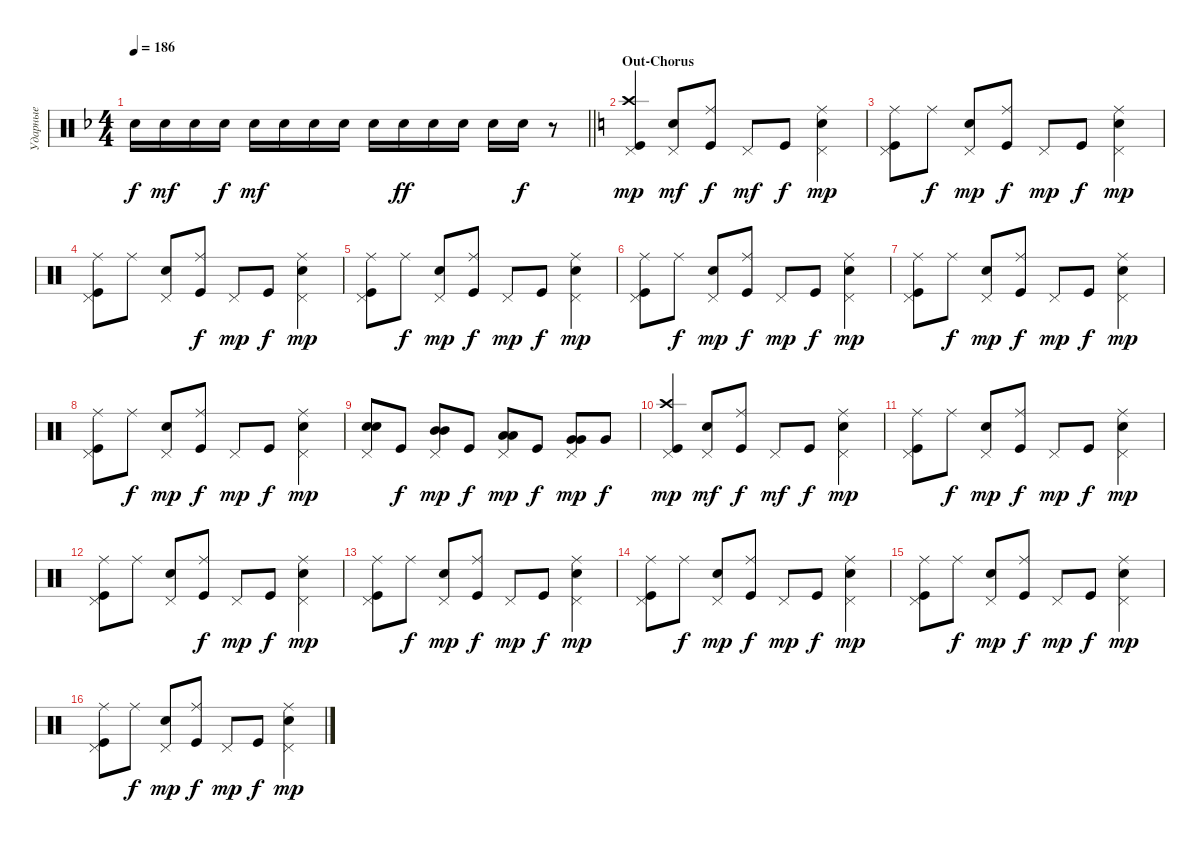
\track ("Ударные" "Ударные") {instrument percussion}
\staff {score}
\articulation defaults
\ts (4 4)
\tempo 186
\clef neutral
\barLineRight lightlight
\ks dminor "Snare (hit) 2".16{dy f} "Snare (hit) 2".16{dy mf} "Snare (hit) 2".16 "Snare (hit) 2".16{dy f} "Snare (hit) 2".16{dy mf} "Snare (hit) 2".16 "Snare (hit) 2".16 "Snare (hit) 2".16 "Snare (hit) 2".16 "Snare (hit) 2".16{dy ff} "Snare (hit) 2".16 "Snare (hit) 2".16 "Snare (hit) 2".16 "Snare (hit) 2".16{dy f}
r.8 |
\section ("" "Out-Chorus")
\ks aminor
("Kick (hit)" "Crash high (hit)" "Pedal Hi-Hat (hit)").4{dy mp} ("Snare (hit) 2" "Pedal Hi-Hat (hit)").8{dy mf} ("Kick (hit)" "Ride (middle)").8{dy f} "Pedal Hi-Hat (hit)".8{dy mf} "Kick (hit)".8{dy f} ("Snare (hit) 2" "Ride (middle)" "Pedal Hi-Hat (hit)").4{dy mp} |
("Pedal Hi-Hat (hit)" "Ride (middle)" "Kick (hit)").8 "Ride (middle)".8{dy f} ("Snare (hit) 2" "Pedal Hi-Hat (hit)").8{dy mp} ("Kick (hit)" "Ride (middle)").8{dy f} "Pedal Hi-Hat (hit)".8{dy mp} "Kick (hit)".8{dy f} ("Snare (hit) 2" "Ride (middle)" "Pedal Hi-Hat (hit)").4{dy mp} |
("Pedal Hi-Hat (hit)" "Ride (middle)" "Kick (hit)").8 "Ride (middle)".8 ("Snare (hit) 2" "Pedal Hi-Hat (hit)").8 ("Kick (hit)" "Ride (middle)").8{dy f} "Pedal Hi-Hat (hit)".8{dy mp} "Kick (hit)".8{dy f} ("Snare (hit) 2" "Ride (middle)" "Pedal Hi-Hat (hit)").4{dy mp} |
("Pedal Hi-Hat (hit)" "Ride (middle)" "Kick (hit)").8 "Ride (middle)".8{dy f} ("Snare (hit) 2" "Pedal Hi-Hat (hit)").8{dy mp} ("Kick (hit)" "Ride (middle)").8{dy f} "Pedal Hi-Hat (hit)".8{dy mp} "Kick (hit)".8{dy f} ("Snare (hit) 2" "Ride (middle)" "Pedal Hi-Hat (hit)").4{dy mp} |
("Pedal Hi-Hat (hit)" "Ride (middle)" "Kick (hit)").8 "Ride (middle)".8{dy f} ("Snare (hit) 2" "Pedal Hi-Hat (hit)").8{dy mp} ("Kick (hit)" "Ride (middle)").8{dy f} "Pedal Hi-Hat (hit)".8{dy mp} "Kick (hit)".8{dy f} ("Snare (hit) 2" "Ride (middle)" "Pedal Hi-Hat (hit)").4{dy mp} |
("Pedal Hi-Hat (hit)" "Ride (middle)" "Kick (hit)").8 "Ride (middle)".8{dy f} ("Snare (hit) 2" "Pedal Hi-Hat (hit)").8{dy mp} ("Kick (hit)" "Ride (middle)").8{dy f} "Pedal Hi-Hat (hit)".8{dy mp} "Kick (hit)".8{dy f} ("Snare (hit) 2" "Ride (middle)" "Pedal Hi-Hat (hit)").4{dy mp} |
("Pedal Hi-Hat (hit)" "Ride (middle)" "Kick (hit)").8 "Ride (middle)".8{dy f} ("Snare (hit) 2" "Pedal Hi-Hat (hit)").8{dy mp} ("Kick (hit)" "Ride (middle)").8{dy f} "Pedal Hi-Hat (hit)".8{dy mp} "Kick (hit)".8{dy f} ("Snare (hit) 2" "Ride (middle)" "Pedal Hi-Hat (hit)").4{dy mp} |
("Snare (hit) 2" "Snare (hit) 2" "Pedal Hi-Hat (hit)").8{bd 240} "Kick (hit)".8{dy f} ("Pedal Hi-Hat (hit)" "Mid Tom (hit)" "Mid Tom (hit)").8{bd 480 dy mp} "Kick (hit)".8{dy f} ("Low Tom (hit)" "Low Tom (hit)" "Pedal Hi-Hat (hit)").8{bd 480 dy mp} "Kick (hit)".8{dy f} ("Very Low Tom (hit)" "Pedal Hi-Hat (hit)" "Very Low Tom (hit)").8{dy mp} "Very Low Tom (hit)".8{dy f} |
("Kick (hit)" "Crash high (hit)" "Pedal Hi-Hat (hit)").4{dy mp} ("Snare (hit) 2" "Pedal Hi-Hat (hit)").8{dy mf} ("Kick (hit)" "Ride (middle)").8{dy f} "Pedal Hi-Hat (hit)".8{dy mf} "Kick (hit)".8{dy f} ("Snare (hit) 2" "Ride (middle)" "Pedal Hi-Hat (hit)").4{dy mp} |
("Pedal Hi-Hat (hit)" "Ride (middle)" "Kick (hit)").8 "Ride (middle)".8{dy f} ("Snare (hit) 2" "Pedal Hi-Hat (hit)").8{dy mp} ("Kick (hit)" "Ride (middle)").8{dy f} "Pedal Hi-Hat (hit)".8{dy mp} "Kick (hit)".8{dy f} ("Snare (hit) 2" "Ride (middle)" "Pedal Hi-Hat (hit)").4{dy mp} |
("Pedal Hi-Hat (hit)" "Ride (middle)" "Kick (hit)").8 "Ride (middle)".8 ("Snare (hit) 2" "Pedal Hi-Hat (hit)").8 ("Kick (hit)" "Ride (middle)").8{dy f} "Pedal Hi-Hat (hit)".8{dy mp} "Kick (hit)".8{dy f} ("Snare (hit) 2" "Ride (middle)" "Pedal Hi-Hat (hit)").4{dy mp} |
("Pedal Hi-Hat (hit)" "Ride (middle)" "Kick (hit)").8 "Ride (middle)".8{dy f} ("Snare (hit) 2" "Pedal Hi-Hat (hit)").8{dy mp} ("Kick (hit)" "Ride (middle)").8{dy f} "Pedal Hi-Hat (hit)".8{dy mp} "Kick (hit)".8{dy f} ("Snare (hit) 2" "Ride (middle)" "Pedal Hi-Hat (hit)").4{dy mp} |
("Pedal Hi-Hat (hit)" "Ride (middle)" "Kick (hit)").8 "Ride (middle)".8{dy f} ("Snare (hit) 2" "Pedal Hi-Hat (hit)").8{dy mp} ("Kick (hit)" "Ride (middle)").8{dy f} "Pedal Hi-Hat (hit)".8{dy mp} "Kick (hit)".8{dy f} ("Snare (hit) 2" "Ride (middle)" "Pedal Hi-Hat (hit)").4{dy mp} |
("Pedal Hi-Hat (hit)" "Ride (middle)" "Kick (hit)").8 "Ride (middle)".8{dy f} ("Snare (hit) 2" "Pedal Hi-Hat (hit)").8{dy mp} ("Kick (hit)" "Ride (middle)").8{dy f} "Pedal Hi-Hat (hit)".8{dy mp} "Kick (hit)".8{dy f} ("Snare (hit) 2" "Ride (middle)" "Pedal Hi-Hat (hit)").4{dy mp} |
("Pedal Hi-Hat (hit)" "Ride (middle)" "Kick (hit)").8 "Ride (middle)".8{dy f} ("Snare (hit) 2" "Pedal Hi-Hat (hit)").8{dy mp} ("Kick (hit)" "Ride (middle)").8{dy f} "Pedal Hi-Hat (hit)".8{dy mp} "Kick (hit)".8{dy f} ("Snare (hit) 2" "Ride (middle)" "Pedal Hi-Hat (hit)").4{dy mp}
